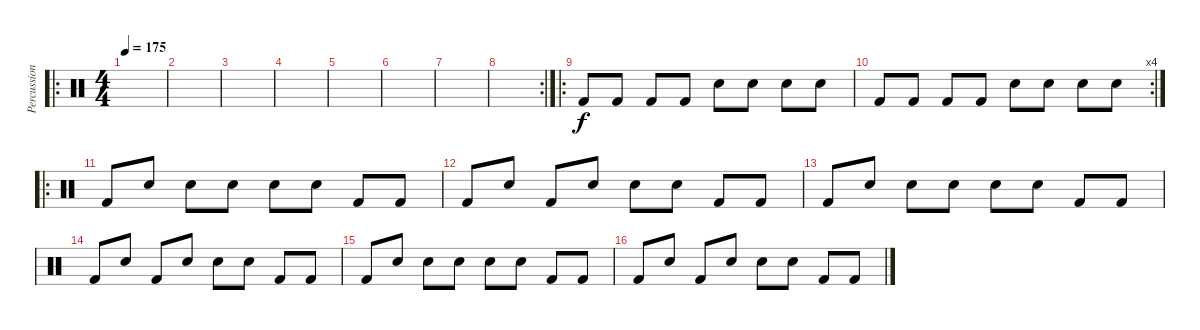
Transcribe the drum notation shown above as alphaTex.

\track ("Percussion" "Percussion") {instrument percussion}
\staff {score}
\articulation defaults
\ro
\ts (4 4)
\tempo 175
\clef neutral
\ks c
|
|
|
|
|
|
|
\rc 2
|
\ro "Kick (hit) 2".8 "Kick (hit) 2".8 "Kick (hit) 2".8 "Kick (hit) 2".8 "Electric Snare (hit)".8 "Electric Snare (hit)".8 "Electric Snare (hit)".8 "Snare (hit)".8
|
\rc 4 "Kick (hit) 2".8 "Kick (hit) 2".8 "Kick (hit) 2".8 "Kick (hit) 2".8 "Electric Snare (hit)".8 "Electric Snare (hit)".8 "Electric Snare (hit)".8 "Snare (hit)".8
|
\ro "Kick (hit) 2".8 "Snare (hit)".8 "Snare (hit)".8 "Snare (hit)".8 "Electric Snare (hit)".8 "Snare (hit)".8 "Kick (hit) 2".8 "Kick (hit) 2".8
|
"Kick (hit) 2".8 "Snare (hit)".8 "Kick (hit) 2".8 "Snare (hit)".8 "Electric Snare (hit)".8 "Snare (hit)".8 "Kick (hit) 2".8 "Kick (hit) 2".8 |
"Kick (hit) 2".8 "Snare (hit)".8 "Snare (hit)".8 "Snare (hit)".8 "Electric Snare (hit)".8 "Snare (hit)".8 "Kick (hit) 2".8 "Kick (hit) 2".8 |
"Kick (hit) 2".8 "Snare (hit)".8 "Kick (hit) 2".8 "Snare (hit)".8 "Electric Snare (hit)".8 "Snare (hit)".8 "Kick (hit) 2".8 "Kick (hit) 2".8 |
"Kick (hit) 2".8 "Snare (hit)".8 "Snare (hit)".8 "Snare (hit)".8 "Electric Snare (hit)".8 "Snare (hit)".8 "Kick (hit) 2".8 "Kick (hit) 2".8 |
"Kick (hit) 2".8 "Snare (hit)".8 "Kick (hit) 2".8 "Snare (hit)".8 "Electric Snare (hit)".8 "Snare (hit)".8 "Kick (hit) 2".8 "Kick (hit) 2".8
